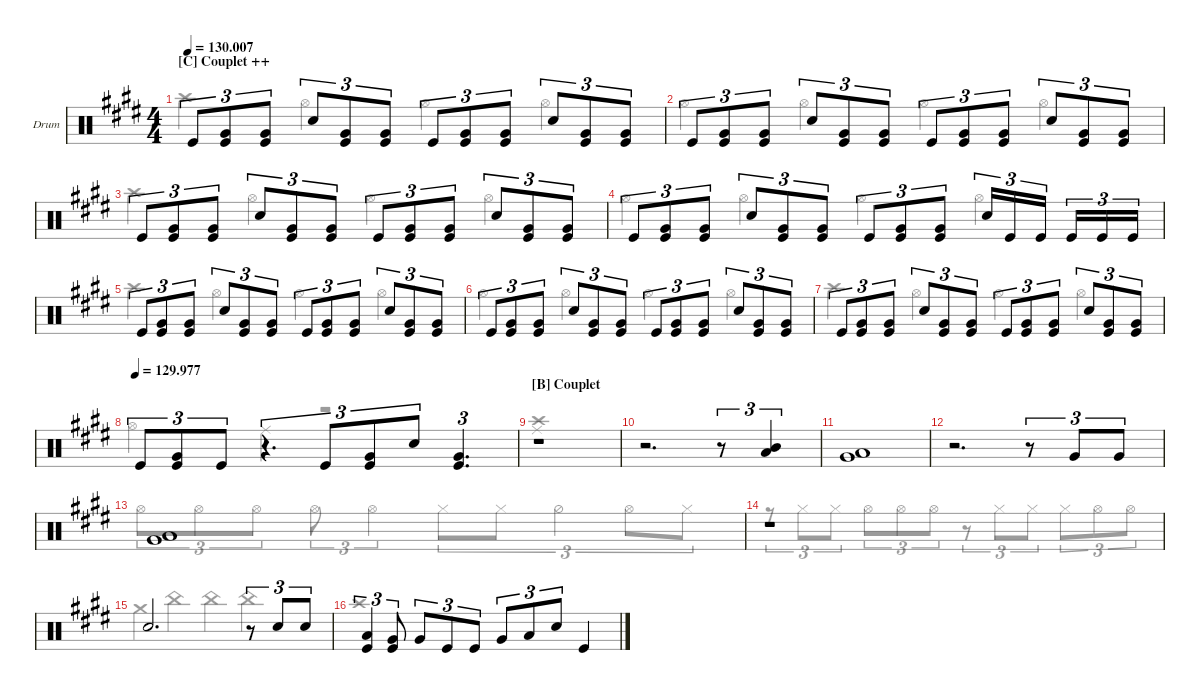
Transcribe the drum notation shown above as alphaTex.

\defaultSystemsLayout 4
\hideDynamics
\bracketExtendMode nobrackets
\firstSystemTrackNameOrientation horizontal
\otherSystemsTrackNameOrientation horizontal
\track ("BATTERIE" "Drum") {defaultSystemsLayout 4 instrument percussion}
\staff {score}
\articulation defaults
\voice
\ts (4 4)
\section ("C" "Couplet ++")
\tempo
130.007
\accidentals auto
\clef neutral
\ottava regular
\simile none
\ks e "Kick (hit)".8{tu (3 2) dy mf}
("Kick (hit)" "Very Low Tom (hit)").8{tu (3 2)} ("Kick (hit)" "Very Low Tom (hit)").8{tu (3 2)} "Snare (hit) 2".8{tu (3 2)} ("Kick (hit)" "Very Low Tom (hit)").8{tu (3 2)} ("Kick (hit)" "Very Low Tom (hit)").8{tu (3 2)} "Kick (hit)".8{tu (3 2)} ("Kick (hit)" "Very Low Tom (hit)").8{tu (3 2)} ("Kick (hit)" "Very Low Tom (hit)").8{tu (3 2)} "Snare (hit) 2".8{tu (3 2)} ("Kick (hit)" "Very Low Tom (hit)").8{tu (3 2)} ("Kick (hit)" "Very Low Tom (hit)").8{tu (3 2)} |
"Kick (hit)".8{tu (3 2)} ("Kick (hit)" "Very Low Tom (hit)").8{tu (3 2)} ("Kick (hit)" "Very Low Tom (hit)").8{tu (3 2)} "Snare (hit) 2".8{tu (3 2)} ("Kick (hit)" "Very Low Tom (hit)").8{tu (3 2)} ("Kick (hit)" "Very Low Tom (hit)").8{tu (3 2)} "Kick (hit)".8{tu (3 2)} ("Kick (hit)" "Very Low Tom (hit)").8{tu (3 2)} ("Kick (hit)" "Very Low Tom (hit)").8{tu (3 2)} "Snare (hit) 2".8{tu (3 2)} ("Kick (hit)" "Very Low Tom (hit)").8{tu (3 2)} ("Kick (hit)" "Very Low Tom (hit)").8{tu (3 2)} |
"Kick (hit)".8{tu (3 2)} ("Kick (hit)" "Very Low Tom (hit)").8{tu (3 2)} ("Kick (hit)" "Very Low Tom (hit)").8{tu (3 2)} "Snare (hit) 2".8{tu (3 2)} ("Kick (hit)" "Very Low Tom (hit)").8{tu (3 2)} ("Kick (hit)" "Very Low Tom (hit)").8{tu (3 2)} "Kick (hit)".8{tu (3 2)} ("Kick (hit)" "Very Low Tom (hit)").8{tu (3 2)} ("Kick (hit)" "Very Low Tom (hit)").8{tu (3 2)} "Snare (hit) 2".8{tu (3 2)} ("Kick (hit)" "Very Low Tom (hit)").8{tu (3 2)} ("Kick (hit)" "Very Low Tom (hit)").8{tu (3 2)} |
"Kick (hit)".8{tu (3 2)} ("Kick (hit)" "Very Low Tom (hit)").8{tu (3 2)} ("Kick (hit)" "Very Low Tom (hit)").8{tu (3 2)} "Snare (hit) 2".8{tu (3 2)} ("Kick (hit)" "Very Low Tom (hit)").8{tu (3 2)} ("Kick (hit)" "Very Low Tom (hit)").8{tu (3 2)} "Kick (hit)".8{tu (3 2)} ("Kick (hit)" "Very Low Tom (hit)").8{tu (3 2)} ("Kick (hit)" "Very Low Tom (hit)").8{tu (3 2)} "Snare (hit) 2".16{tu (3 2)} "Kick (hit)".16{tu (3 2)} "Kick (hit)".16{tu (3 2)} "Kick (hit)".16{tu (3 2)} "Kick (hit)".16{tu (3 2)} "Kick (hit)".16{tu (3 2)} |
"Kick (hit)".8{tu (3 2)} ("Kick (hit)" "Very Low Tom (hit)").8{tu (3 2)} ("Kick (hit)" "Very Low Tom (hit)").8{tu (3 2)} "Snare (hit) 2".8{tu (3 2)} ("Kick (hit)" "Very Low Tom (hit)").8{tu (3 2)} ("Kick (hit)" "Very Low Tom (hit)").8{tu (3 2)} "Kick (hit)".8{tu (3 2)} ("Kick (hit)" "Very Low Tom (hit)").8{tu (3 2)} ("Kick (hit)" "Very Low Tom (hit)").8{tu (3 2)} "Snare (hit) 2".8{tu (3 2)} ("Kick (hit)" "Very Low Tom (hit)").8{tu (3 2)} ("Kick (hit)" "Very Low Tom (hit)").8{tu (3 2)} |
"Kick (hit)".8{tu (3 2)} ("Kick (hit)" "Very Low Tom (hit)").8{tu (3 2)} ("Kick (hit)" "Very Low Tom (hit)").8{tu (3 2)} "Snare (hit) 2".8{tu (3 2)} ("Kick (hit)" "Very Low Tom (hit)").8{tu (3 2)} ("Kick (hit)" "Very Low Tom (hit)").8{tu (3 2)} "Kick (hit)".8{tu (3 2)} ("Kick (hit)" "Very Low Tom (hit)").8{tu (3 2)} ("Kick (hit)" "Very Low Tom (hit)").8{tu (3 2)} "Snare (hit) 2".8{tu (3 2)} ("Kick (hit)" "Very Low Tom (hit)").8{tu (3 2)} ("Kick (hit)" "Very Low Tom (hit)").8{tu (3 2)} |
"Kick (hit)".8{tu (3 2)} ("Kick (hit)" "Very Low Tom (hit)").8{tu (3 2)} ("Kick (hit)" "Very Low Tom (hit)").8{tu (3 2)} "Snare (hit) 2".8{tu (3 2)} ("Kick (hit)" "Very Low Tom (hit)").8{tu (3 2)} ("Kick (hit)" "Very Low Tom (hit)").8{tu (3 2)} "Kick (hit)".8{tu (3 2)} ("Kick (hit)" "Very Low Tom (hit)").8{tu (3 2)} ("Kick (hit)" "Very Low Tom (hit)").8{tu (3 2)} "Snare (hit) 2".8{tu (3 2)} ("Kick (hit)" "Very Low Tom (hit)").8{tu (3 2)} ("Kick (hit)" "Very Low Tom (hit)").8{tu (3 2)} |
\tempo (129.977)
"Kick (hit)".8{tu (3 2)} ("Kick (hit)" "Very Low Tom (hit)").8{tu (3 2)} "Kick (hit)".8{tu (3 2)} r.4{d tu (3 2)} "Kick (hit)".8{tu (3 2)} ("Kick (hit)" "Very Low Tom (hit)").8{tu (3 2)} "Snare (hit) 2".8{tu (3 2)} ("Kick (hit)" "Very Low Tom (hit)").4{d tu (3 2)} |
\section ("B" "Couplet")
r.1 |
r.2{d} r.8{tu (3 2)} ("Low Tom (hit)" "Mid Tom (hit)").4{tu (3 2)} |
("Very Low Tom (hit)" "Low Tom (hit)").1 |
r.2{d} r.8{tu (3 2)} "Very Low Tom (hit)".8{tu (3 2)} "Very Low Tom (hit)".8{tu (3 2)} |
("Very Low Tom (hit)" "Low Tom (hit)").1 |
r.1 |
"Snare (hit) 2".2{d} r.8{tu (3 2)} "Snare (hit) 2".8{tu (3 2)} "Snare (hit) 2".8{tu (3 2)} |
("Kick (hit)" "Low Tom (hit)").4{tu (3 2)} ("Kick (hit)" "Very Low Tom (hit)").8{tu (3 2)} "Very Low Tom (hit)".8{tu (3 2)} "Kick (hit)".8{tu (3 2)} "Kick (hit)".8{tu (3 2)} "Very Low Tom (hit)".8{tu (3 2)} "Low Tom (hit)".8{tu (3 2)} "Snare (hit) 2".8{tu (3 2)} "Kick (hit)".4
\voice
\clef neutral
\ottava regular
\simile none
\ks e "Crash high (hit)".4{dy mf} "Hi-Hat (open)".4 "Hi-Hat (open)".4 "Hi-Hat (open)".4
|
"Hi-Hat (open)".4 "Hi-Hat (open)".4 "Hi-Hat (open)".4 "Hi-Hat (open)".4 |
"Crash high (hit)".4 "Hi-Hat (open)".4 "Hi-Hat (open)".4 "Hi-Hat (open)".4 |
"Hi-Hat (open)".4 "Hi-Hat (open)".4 "Hi-Hat (open)".4 "Hi-Hat (open)".4 |
"Crash high (hit)".4 "Hi-Hat (open)".4 "Hi-Hat (open)".4 "Hi-Hat (open)".4 |
"Hi-Hat (open)".4 "Hi-Hat (open)".4 "Hi-Hat (open)".4 "Hi-Hat (open)".4 |
"Crash high (hit)".4 "Hi-Hat (open)".4 "Hi-Hat (open)".4 "Hi-Hat (open)".4 |
"Hi-Hat (open)".4 "Ride (middle)".4 r.2 |
("Crash high (hit)" "Ride (middle)").1 |
|
|
|
"Hi-Hat (open)".8{tu (3 2)} "Hi-Hat (open)".8{tu (3 2)} "Hi-Hat (open)".8{tu (3 2)} "Hi-Hat (open)".8{tu (3 2)} "Hi-Hat (open)".4{tu (3 2)} "Hi-Hat (closed)".8{tu (3 2)} "Hi-Hat (closed)".8{tu (3 2)} "Hi-Hat (half)".4{tu (3 2)} "Hi-Hat (open)".8{tu (3 2)} "Hi-Hat (closed)".8{tu (3 2)} |
r.8{tu (3 2)} "Hi-Hat (closed)".8{tu (3 2)} "Hi-Hat (closed)".8{tu (3 2)} "Hi-Hat (open)".8{tu (3 2)} "Hi-Hat (open)".8{tu (3 2)} "Hi-Hat (open)".8{tu (3 2)} r.8{tu (3 2)} "Hi-Hat (closed)".8{tu (3 2)} "Hi-Hat (closed)".8{tu (3 2)} "Hi-Hat (closed)".8{tu (3 2)} "Hi-Hat (open)".8{tu (3 2)} "Hi-Hat (open)".8{tu (3 2)} |
"Crash medium (hit)".4 "China (hit)".4 "China (hit)".4 "China (hit)".4 |
"Crash high (hit)".1
